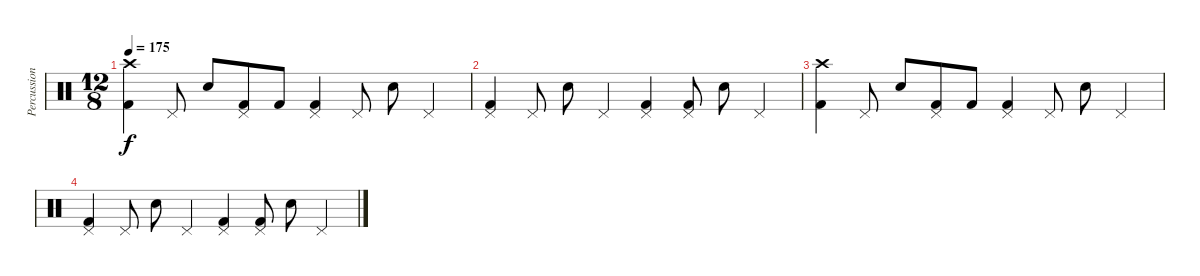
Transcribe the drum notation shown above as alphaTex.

\track ("Percussion" "Percussion") {instrument percussion}
\staff {score}
\articulation defaults
\ts (12 8)
\tempo 175
\clef neutral
\ks c
("Kick (hit) 2" "Crash high (hit)").4{dy f} "Pedal Hi-Hat (hit)".8 "Snare (hit) 2".8 ("Kick (hit) 2" "Pedal Hi-Hat (hit)").8 "Kick (hit) 2".8 ("Kick (hit) 2" "Pedal Hi-Hat (hit)").4 "Pedal Hi-Hat (hit)".8 "Snare (hit) 2".8 "Pedal Hi-Hat (hit)".4 |
("Kick (hit) 2" "Pedal Hi-Hat (hit)").4 "Pedal Hi-Hat (hit)".8 "Snare (hit) 2".8 "Pedal Hi-Hat (hit)".4 ("Kick (hit) 2" "Pedal Hi-Hat (hit)").4 ("Kick (hit) 2" "Pedal Hi-Hat (hit)").8 "Snare (hit) 2".8 "Pedal Hi-Hat (hit)".4 |
("Kick (hit) 2" "Crash high (hit)").4 "Pedal Hi-Hat (hit)".8 "Snare (hit) 2".8 ("Kick (hit) 2" "Pedal Hi-Hat (hit)").8 "Kick (hit) 2".8 ("Kick (hit) 2" "Pedal Hi-Hat (hit)").4 "Pedal Hi-Hat (hit)".8 "Snare (hit) 2".8 "Pedal Hi-Hat (hit)".4 |
("Kick (hit) 2" "Pedal Hi-Hat (hit)").4 "Pedal Hi-Hat (hit)".8 "Snare (hit) 2".8 "Pedal Hi-Hat (hit)".4 ("Kick (hit) 2" "Pedal Hi-Hat (hit)").4 ("Kick (hit) 2" "Pedal Hi-Hat (hit)").8 "Snare (hit) 2".8 "Pedal Hi-Hat (hit)".4
